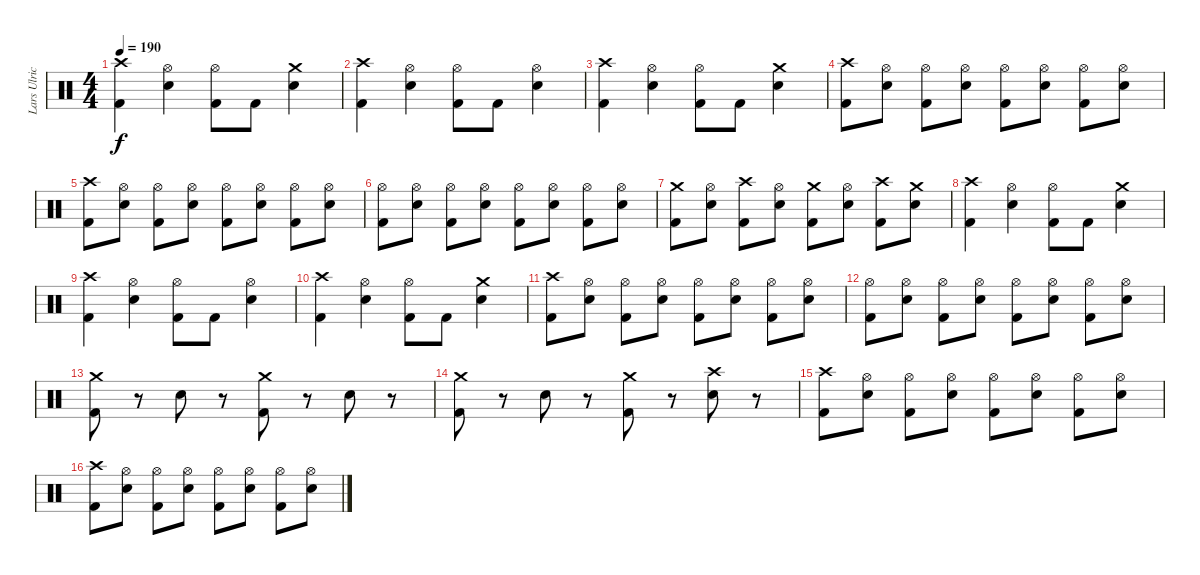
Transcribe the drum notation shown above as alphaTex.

\track ("Lars Ulrich" "Lars Ulric") {instrument percussion}
\staff {score}
\articulation defaults
\ts (4 4)
\tempo 190
\clef neutral
\ks c
("Crash high (hit)" "Kick (hit) 2").4{dy f} ("Hi-Hat (open)" "Snare (hit) 2").4 ("Hi-Hat (open)" "Kick (hit) 2").8 "Kick (hit) 2".8 ("Crash medium (hit)" "Snare (hit) 2").4 |
("Crash high (hit)" "Kick (hit) 2").4 ("Hi-Hat (open)" "Snare (hit) 2").4 ("Hi-Hat (open)" "Kick (hit) 2").8 "Kick (hit) 2".8 ("Hi-Hat (open)" "Snare (hit) 2").4 |
("Crash high (hit)" "Kick (hit) 2").4 ("Hi-Hat (open)" "Snare (hit) 2").4 ("Hi-Hat (open)" "Kick (hit) 2").8 "Kick (hit) 2".8 ("Crash medium (hit)" "Snare (hit) 2").4 |
("Crash high (hit)" "Kick (hit) 2").8 ("Hi-Hat (open)" "Snare (hit) 2").8 ("Hi-Hat (open)" "Kick (hit) 2").8 ("Hi-Hat (open)" "Snare (hit) 2").8 ("Hi-Hat (open)" "Kick (hit) 2").8 ("Hi-Hat (open)" "Snare (hit) 2").8 ("Hi-Hat (open)" "Kick (hit) 2").8 ("Hi-Hat (open)" "Snare (hit) 2").8 |
("Crash high (hit)" "Kick (hit) 2").8 ("Hi-Hat (open)" "Snare (hit) 2").8 ("Hi-Hat (open)" "Kick (hit) 2").8 ("Hi-Hat (open)" "Snare (hit) 2").8 ("Hi-Hat (open)" "Kick (hit) 2").8 ("Hi-Hat (open)" "Snare (hit) 2").8 ("Hi-Hat (open)" "Kick (hit) 2").8 ("Hi-Hat (open)" "Snare (hit) 2").8 |
("Hi-Hat (open)" "Kick (hit) 2").8 ("Hi-Hat (open)" "Snare (hit) 2").8 ("Hi-Hat (open)" "Kick (hit) 2").8 ("Hi-Hat (open)" "Snare (hit) 2").8 ("Hi-Hat (open)" "Kick (hit) 2").8 ("Hi-Hat (open)" "Snare (hit) 2").8 ("Hi-Hat (open)" "Kick (hit) 2").8 ("Hi-Hat (open)" "Snare (hit) 2").8 |
("Crash medium (hit)" "Kick (hit) 2").8 ("Hi-Hat (open)" "Snare (hit) 2").8 ("Crash high (hit)" "Kick (hit) 2").8 ("Hi-Hat (open)" "Snare (hit) 2").8 ("Crash medium (hit)" "Kick (hit) 2").8 ("Hi-Hat (open)" "Snare (hit) 2").8 ("Crash high (hit)" "Kick (hit) 2").8 ("Crash medium (hit)" "Snare (hit) 2").8 |
("Crash high (hit)" "Kick (hit) 2").4 ("Hi-Hat (open)" "Snare (hit) 2").4 ("Hi-Hat (open)" "Kick (hit) 2").8 "Kick (hit) 2".8 ("Crash medium (hit)" "Snare (hit) 2").4 |
("Crash high (hit)" "Kick (hit) 2").4 ("Hi-Hat (open)" "Snare (hit) 2").4 ("Hi-Hat (open)" "Kick (hit) 2").8 "Kick (hit) 2".8 ("Hi-Hat (open)" "Snare (hit) 2").4 |
("Crash high (hit)" "Kick (hit) 2").4 ("Hi-Hat (open)" "Snare (hit) 2").4 ("Hi-Hat (open)" "Kick (hit) 2").8 "Kick (hit) 2".8 ("Crash medium (hit)" "Snare (hit) 2").4 |
("Crash high (hit)" "Kick (hit) 2").8 ("Hi-Hat (open)" "Snare (hit) 2").8 ("Hi-Hat (open)" "Kick (hit) 2").8 ("Hi-Hat (open)" "Snare (hit) 2").8 ("Hi-Hat (open)" "Kick (hit) 2").8 ("Hi-Hat (open)" "Snare (hit) 2").8 ("Hi-Hat (open)" "Kick (hit) 2").8 ("Hi-Hat (open)" "Snare (hit) 2").8 |
("Hi-Hat (open)" "Kick (hit) 2").8 ("Hi-Hat (open)" "Snare (hit) 2").8 ("Hi-Hat (open)" "Kick (hit) 2").8 ("Hi-Hat (open)" "Snare (hit) 2").8 ("Hi-Hat (open)" "Kick (hit) 2").8 ("Hi-Hat (open)" "Snare (hit) 2").8 ("Hi-Hat (open)" "Kick (hit) 2").8 ("Hi-Hat (open)" "Snare (hit) 2").8 |
("Crash medium (hit)" "Kick (hit) 2").8 r.8 "Snare (hit) 2".8 r.8 ("Crash medium (hit)" "Kick (hit) 2").8 r.8 "Snare (hit) 2".8 r.8 |
("Crash medium (hit)" "Kick (hit) 2").8 r.8 "Snare (hit) 2".8 r.8 ("Crash medium (hit)" "Kick (hit) 2").8 r.8 ("Crash high (hit)" "Snare (hit) 2").8 r.8 |
("Crash high (hit)" "Kick (hit) 2").8 ("Hi-Hat (open)" "Snare (hit) 2").8 ("Hi-Hat (open)" "Kick (hit) 2").8 ("Hi-Hat (open)" "Snare (hit) 2").8 ("Hi-Hat (open)" "Kick (hit) 2").8 ("Hi-Hat (open)" "Snare (hit) 2").8 ("Hi-Hat (open)" "Kick (hit) 2").8 ("Hi-Hat (open)" "Snare (hit) 2").8 |
("Crash high (hit)" "Kick (hit) 2").8 ("Hi-Hat (open)" "Snare (hit) 2").8 ("Hi-Hat (open)" "Kick (hit) 2").8 ("Hi-Hat (open)" "Snare (hit) 2").8 ("Hi-Hat (open)" "Kick (hit) 2").8 ("Hi-Hat (open)" "Snare (hit) 2").8 ("Hi-Hat (open)" "Kick (hit) 2").8 ("Hi-Hat (open)" "Snare (hit) 2").8
